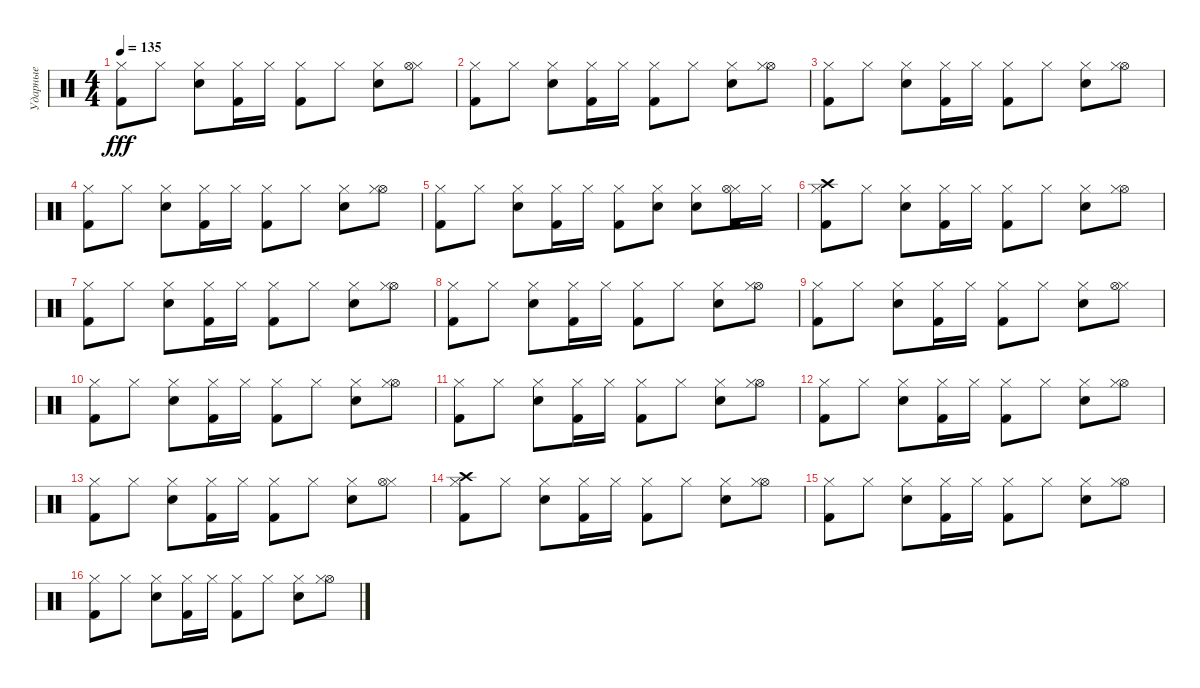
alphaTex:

\track ("Ударные" "Ударные") {instrument percussion}
\staff {score}
\articulation defaults
\ts (4 4)
\tempo 135
\clef neutral
\ks c
("Hi-Hat (closed)" "Kick (hit) 2").8{dy fff} "Hi-Hat (closed)".8 ("Hi-Hat (closed)" "Snare (hit) 2").8 ("Kick (hit) 2" "Hi-Hat (closed)").16 "Hi-Hat (closed)".16 ("Hi-Hat (closed)" "Kick (hit) 2").8 "Hi-Hat (closed)".8 ("Snare (hit) 2" "Hi-Hat (closed)").8 ("Hi-Hat (closed)" "Hi-Hat (open)").8 |
("Hi-Hat (closed)" "Kick (hit) 2").8 "Hi-Hat (closed)".8 ("Hi-Hat (closed)" "Snare (hit) 2").8 ("Hi-Hat (closed)" "Kick (hit) 2").16 "Hi-Hat (closed)".16 ("Hi-Hat (closed)" "Kick (hit) 2").8 "Hi-Hat (closed)".8 ("Snare (hit) 2" "Hi-Hat (closed)").8 ("Hi-Hat (open)" "Hi-Hat (closed)").8 |
("Hi-Hat (closed)" "Kick (hit) 2").8 "Hi-Hat (closed)".8 ("Hi-Hat (closed)" "Snare (hit) 2").8 ("Kick (hit) 2" "Hi-Hat (closed)").16 "Hi-Hat (closed)".16 ("Hi-Hat (closed)" "Kick (hit) 2").8 "Hi-Hat (closed)".8 ("Hi-Hat (closed)" "Snare (hit) 2").8 ("Hi-Hat (open)" "Hi-Hat (closed)").8 |
("Hi-Hat (closed)" "Kick (hit) 2").8 "Hi-Hat (closed)".8 ("Snare (hit) 2" "Hi-Hat (closed)").8 ("Hi-Hat (closed)" "Kick (hit) 2").16 "Hi-Hat (closed)".16 ("Hi-Hat (closed)" "Kick (hit) 2").8 "Hi-Hat (closed)".8 ("Hi-Hat (closed)" "Snare (hit) 2").8 ("Hi-Hat (open)" "Hi-Hat (closed)").8 |
("Hi-Hat (closed)" "Kick (hit) 2").8 "Hi-Hat (closed)".8 ("Hi-Hat (closed)" "Snare (hit) 2").8 ("Kick (hit) 2" "Hi-Hat (closed)").16 "Hi-Hat (closed)".16 ("Hi-Hat (closed)" "Kick (hit) 2").8 ("Hi-Hat (closed)" "Snare (hit) 2").8 ("Snare (hit) 2" "Hi-Hat (closed)").8 ("Hi-Hat (closed)" "Hi-Hat (open)" "Kick (hit) 2").16 "Hi-Hat (closed)".16 |
("Crash high (hit)" "Hi-Hat (closed)" "Kick (hit) 2").8 "Hi-Hat (closed)".8 ("Hi-Hat (closed)" "Snare (hit) 2").8 ("Hi-Hat (closed)" "Kick (hit) 2").16 "Hi-Hat (closed)".16 ("Hi-Hat (closed)" "Kick (hit) 2").8 "Hi-Hat (closed)".8 ("Snare (hit) 2" "Hi-Hat (closed)").8 ("Hi-Hat (open)" "Hi-Hat (closed)").8 |
("Hi-Hat (closed)" "Kick (hit) 2").8 "Hi-Hat (closed)".8 ("Hi-Hat (closed)" "Snare (hit) 2").8 ("Kick (hit) 2" "Hi-Hat (closed)").16 "Hi-Hat (closed)".16 ("Hi-Hat (closed)" "Kick (hit) 2").8 "Hi-Hat (closed)".8 ("Hi-Hat (closed)" "Snare (hit) 2").8 ("Hi-Hat (open)" "Hi-Hat (closed)").8 |
("Hi-Hat (closed)" "Kick (hit) 2").8 "Hi-Hat (closed)".8 ("Snare (hit) 2" "Hi-Hat (closed)").8 ("Hi-Hat (closed)" "Kick (hit) 2").16 "Hi-Hat (closed)".16 ("Hi-Hat (closed)" "Kick (hit) 2").8 "Hi-Hat (closed)".8 ("Hi-Hat (closed)" "Snare (hit) 2").8 ("Hi-Hat (open)" "Hi-Hat (closed)").8 |
("Hi-Hat (closed)" "Kick (hit) 2").8 "Hi-Hat (closed)".8 ("Hi-Hat (closed)" "Snare (hit) 2").8 ("Kick (hit) 2" "Hi-Hat (closed)").16 "Hi-Hat (closed)".16 ("Hi-Hat (closed)" "Kick (hit) 2").8 "Hi-Hat (closed)".8 ("Snare (hit) 2" "Hi-Hat (closed)").8 ("Hi-Hat (closed)" "Hi-Hat (open)").8 |
("Hi-Hat (closed)" "Kick (hit) 2").8 "Hi-Hat (closed)".8 ("Hi-Hat (closed)" "Snare (hit) 2").8 ("Hi-Hat (closed)" "Kick (hit) 2").16 "Hi-Hat (closed)".16 ("Hi-Hat (closed)" "Kick (hit) 2").8 "Hi-Hat (closed)".8 ("Snare (hit) 2" "Hi-Hat (closed)").8 ("Hi-Hat (open)" "Hi-Hat (closed)").8 |
("Hi-Hat (closed)" "Kick (hit) 2").8 "Hi-Hat (closed)".8 ("Hi-Hat (closed)" "Snare (hit) 2").8 ("Kick (hit) 2" "Hi-Hat (closed)").16 "Hi-Hat (closed)".16 ("Hi-Hat (closed)" "Kick (hit) 2").8 "Hi-Hat (closed)".8 ("Hi-Hat (closed)" "Snare (hit) 2").8 ("Hi-Hat (open)" "Hi-Hat (closed)").8 |
("Hi-Hat (closed)" "Kick (hit) 2").8 "Hi-Hat (closed)".8 ("Snare (hit) 2" "Hi-Hat (closed)").8 ("Hi-Hat (closed)" "Kick (hit) 2").16 "Hi-Hat (closed)".16 ("Hi-Hat (closed)" "Kick (hit) 2").8 "Hi-Hat (closed)".8 ("Hi-Hat (closed)" "Snare (hit) 2").8 ("Hi-Hat (open)" "Hi-Hat (closed)").8 |
("Hi-Hat (closed)" "Kick (hit) 2").8 "Hi-Hat (closed)".8 ("Hi-Hat (closed)" "Snare (hit) 2").8 ("Kick (hit) 2" "Hi-Hat (closed)").16 "Hi-Hat (closed)".16 ("Hi-Hat (closed)" "Kick (hit) 2").8 "Hi-Hat (closed)".8 ("Snare (hit) 2" "Hi-Hat (closed)").8 ("Hi-Hat (closed)" "Hi-Hat (open)").8 |
("Crash high (hit)" "Hi-Hat (closed)" "Kick (hit) 2").8 "Hi-Hat (closed)".8 ("Hi-Hat (closed)" "Snare (hit) 2").8 ("Hi-Hat (closed)" "Kick (hit) 2").16 "Hi-Hat (closed)".16 ("Hi-Hat (closed)" "Kick (hit) 2").8 "Hi-Hat (closed)".8 ("Snare (hit) 2" "Hi-Hat (closed)").8 ("Hi-Hat (open)" "Hi-Hat (closed)").8 |
("Hi-Hat (closed)" "Kick (hit) 2").8 "Hi-Hat (closed)".8 ("Hi-Hat (closed)" "Snare (hit) 2").8 ("Kick (hit) 2" "Hi-Hat (closed)").16 "Hi-Hat (closed)".16 ("Hi-Hat (closed)" "Kick (hit) 2").8 "Hi-Hat (closed)".8 ("Hi-Hat (closed)" "Snare (hit) 2").8 ("Hi-Hat (open)" "Hi-Hat (closed)").8 |
("Hi-Hat (closed)" "Kick (hit) 2").8 "Hi-Hat (closed)".8 ("Snare (hit) 2" "Hi-Hat (closed)").8 ("Hi-Hat (closed)" "Kick (hit) 2").16 "Hi-Hat (closed)".16 ("Hi-Hat (closed)" "Kick (hit) 2").8 "Hi-Hat (closed)".8 ("Hi-Hat (closed)" "Snare (hit) 2").8 ("Hi-Hat (open)" "Hi-Hat (closed)").8
